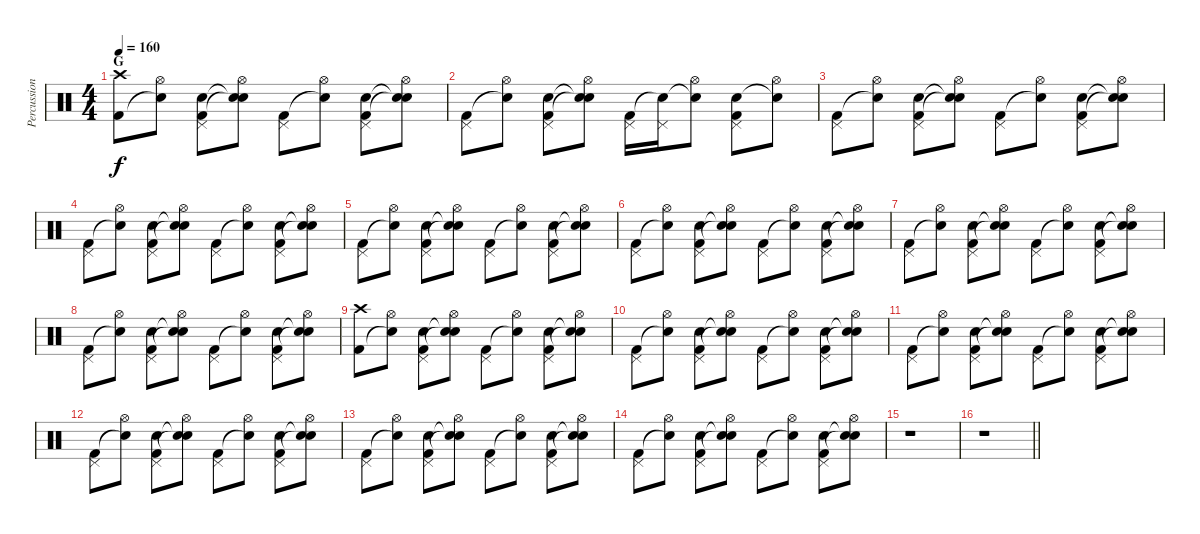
\track ("Percussion" "Percussion") {instrument percussion}
\staff {score}
\articulation defaults
\ts (4 4)
\section ("" "G")
\tempo 160
\clef neutral
\ks c
("Crash high (hit)" "Kick (hit) 2").8{dy f} ("Hi-Hat (open)" "Snare (hit)"{t}).8 ("Pedal Hi-Hat (hit)" "Electric Snare (hit)" "Kick (hit) 2").8 ("Hi-Hat (open)" "Snare (hit)"{t} "Snare (hit)"{t}).8 ("Pedal Hi-Hat (hit)" "Kick (hit) 2").8 ("Hi-Hat (open)" "Snare (hit)"{t}).8 ("Pedal Hi-Hat (hit)" "Electric Snare (hit)" "Kick (hit) 2").8 ("Hi-Hat (open)" "Snare (hit)"{t} "Snare (hit)"{t}).8 |
("Pedal Hi-Hat (hit)" "Kick (hit) 2").8 ("Hi-Hat (open)" "Snare (hit)"{t}).8 ("Pedal Hi-Hat (hit)" "Electric Snare (hit)" "Kick (hit) 2").8 ("Hi-Hat (open)" "Snare (hit)"{t} "Snare (hit)"{t}).8 ("Pedal Hi-Hat (hit)" "Kick (hit) 2").16 ("Pedal Hi-Hat (hit)" "Snare (hit)"{t}).16 ("Hi-Hat (open)" "Snare (hit)"{t}).8 ("Pedal Hi-Hat (hit)" "Electric Snare (hit)" "Kick (hit) 2").8 ("Hi-Hat (open)" "Snare (hit)"{t}).8 |
("Pedal Hi-Hat (hit)" "Kick (hit) 2").8 ("Hi-Hat (open)" "Snare (hit)"{t}).8 ("Pedal Hi-Hat (hit)" "Electric Snare (hit)" "Kick (hit) 2").8 ("Hi-Hat (open)" "Snare (hit)"{t} "Snare (hit)"{t}).8 ("Pedal Hi-Hat (hit)" "Kick (hit) 2").8 ("Hi-Hat (open)" "Snare (hit)"{t}).8 ("Pedal Hi-Hat (hit)" "Electric Snare (hit)" "Kick (hit) 2").8 ("Hi-Hat (open)" "Snare (hit)"{t} "Snare (hit)"{t}).8 |
("Pedal Hi-Hat (hit)" "Kick (hit) 2").8 ("Hi-Hat (open)" "Snare (hit)"{t}).8 ("Pedal Hi-Hat (hit)" "Electric Snare (hit)" "Kick (hit) 2").8 ("Hi-Hat (open)" "Snare (hit)"{t} "Snare (hit)"{t}).8 ("Pedal Hi-Hat (hit)" "Kick (hit) 2").8 ("Hi-Hat (open)" "Snare (hit)"{t}).8 ("Pedal Hi-Hat (hit)" "Electric Snare (hit)" "Kick (hit) 2").8 ("Hi-Hat (open)" "Snare (hit)"{t} "Snare (hit)"{t}).8 |
("Pedal Hi-Hat (hit)" "Kick (hit) 2").8 ("Hi-Hat (open)" "Snare (hit)"{t}).8 ("Pedal Hi-Hat (hit)" "Electric Snare (hit)" "Kick (hit) 2").8 ("Hi-Hat (open)" "Snare (hit)"{t} "Snare (hit)"{t}).8 ("Pedal Hi-Hat (hit)" "Kick (hit) 2").8 ("Hi-Hat (open)" "Snare (hit)"{t}).8 ("Pedal Hi-Hat (hit)" "Electric Snare (hit)" "Kick (hit) 2").8 ("Hi-Hat (open)" "Snare (hit)"{t} "Snare (hit)"{t}).8 |
("Pedal Hi-Hat (hit)" "Kick (hit) 2").8 ("Hi-Hat (open)" "Snare (hit)"{t}).8 ("Pedal Hi-Hat (hit)" "Electric Snare (hit)" "Kick (hit) 2").8 ("Hi-Hat (open)" "Snare (hit)"{t} "Snare (hit)"{t}).8 ("Pedal Hi-Hat (hit)" "Kick (hit) 2").8 ("Hi-Hat (open)" "Snare (hit)"{t}).8 ("Pedal Hi-Hat (hit)" "Electric Snare (hit)" "Kick (hit) 2").8 ("Hi-Hat (open)" "Snare (hit)"{t} "Snare (hit)"{t}).8 |
("Pedal Hi-Hat (hit)" "Kick (hit) 2").8 ("Hi-Hat (open)" "Snare (hit)"{t}).8 ("Pedal Hi-Hat (hit)" "Electric Snare (hit)" "Kick (hit) 2").8 ("Hi-Hat (open)" "Snare (hit)"{t} "Snare (hit)"{t}).8 ("Pedal Hi-Hat (hit)" "Kick (hit) 2").8 ("Hi-Hat (open)" "Snare (hit)"{t}).8 ("Pedal Hi-Hat (hit)" "Electric Snare (hit)" "Kick (hit) 2").8 ("Hi-Hat (open)" "Snare (hit)"{t} "Snare (hit)"{t}).8 |
("Pedal Hi-Hat (hit)" "Kick (hit) 2").8 ("Hi-Hat (open)" "Snare (hit)"{t}).8 ("Pedal Hi-Hat (hit)" "Electric Snare (hit)" "Kick (hit) 2").8 ("Hi-Hat (open)" "Snare (hit)"{t} "Snare (hit)"{t}).8 ("Pedal Hi-Hat (hit)" "Kick (hit) 2").8 ("Hi-Hat (open)" "Snare (hit)"{t}).8 ("Pedal Hi-Hat (hit)" "Electric Snare (hit)" "Kick (hit) 2").8 ("Hi-Hat (open)" "Snare (hit)"{t} "Snare (hit)"{t}).8 |
("Crash high (hit)" "Kick (hit) 2").8 ("Hi-Hat (open)" "Snare (hit)"{t}).8 ("Pedal Hi-Hat (hit)" "Electric Snare (hit)" "Kick (hit) 2").8 ("Hi-Hat (open)" "Snare (hit)"{t} "Snare (hit)"{t}).8 ("Pedal Hi-Hat (hit)" "Kick (hit) 2").8 ("Hi-Hat (open)" "Snare (hit)"{t}).8 ("Pedal Hi-Hat (hit)" "Electric Snare (hit)" "Kick (hit) 2").8 ("Hi-Hat (open)" "Snare (hit)"{t} "Snare (hit)"{t}).8 |
("Pedal Hi-Hat (hit)" "Kick (hit) 2").8 ("Hi-Hat (open)" "Snare (hit)"{t}).8 ("Pedal Hi-Hat (hit)" "Electric Snare (hit)" "Kick (hit) 2").8 ("Hi-Hat (open)" "Snare (hit)"{t} "Snare (hit)"{t}).8 ("Pedal Hi-Hat (hit)" "Kick (hit) 2").8 ("Hi-Hat (open)" "Snare (hit)"{t}).8 ("Pedal Hi-Hat (hit)" "Electric Snare (hit)" "Kick (hit) 2").8 ("Hi-Hat (open)" "Snare (hit)"{t} "Snare (hit)"{t}).8 |
("Pedal Hi-Hat (hit)" "Kick (hit) 2").8 ("Hi-Hat (open)" "Snare (hit)"{t}).8 ("Pedal Hi-Hat (hit)" "Electric Snare (hit)" "Kick (hit) 2").8 ("Hi-Hat (open)" "Snare (hit)"{t} "Snare (hit)"{t}).8 ("Pedal Hi-Hat (hit)" "Kick (hit) 2").8 ("Hi-Hat (open)" "Snare (hit)"{t}).8 ("Pedal Hi-Hat (hit)" "Electric Snare (hit)" "Kick (hit) 2").8 ("Hi-Hat (open)" "Snare (hit)"{t} "Snare (hit)"{t}).8 |
("Pedal Hi-Hat (hit)" "Kick (hit) 2").8 ("Hi-Hat (open)" "Snare (hit)"{t}).8 ("Pedal Hi-Hat (hit)" "Electric Snare (hit)" "Kick (hit) 2").8 ("Hi-Hat (open)" "Snare (hit)"{t} "Snare (hit)"{t}).8 ("Pedal Hi-Hat (hit)" "Kick (hit) 2").8 ("Hi-Hat (open)" "Snare (hit)"{t}).8 ("Pedal Hi-Hat (hit)" "Electric Snare (hit)" "Kick (hit) 2").8 ("Hi-Hat (open)" "Snare (hit)"{t} "Snare (hit)"{t}).8 |
("Pedal Hi-Hat (hit)" "Kick (hit) 2").8 ("Hi-Hat (open)" "Snare (hit)"{t}).8 ("Pedal Hi-Hat (hit)" "Electric Snare (hit)" "Kick (hit) 2").8 ("Hi-Hat (open)" "Snare (hit)"{t} "Snare (hit)"{t}).8 ("Pedal Hi-Hat (hit)" "Kick (hit) 2").8 ("Hi-Hat (open)" "Snare (hit)"{t}).8 ("Pedal Hi-Hat (hit)" "Electric Snare (hit)" "Kick (hit) 2").8 ("Hi-Hat (open)" "Snare (hit)"{t} "Snare (hit)"{t}).8 |
("Pedal Hi-Hat (hit)" "Kick (hit) 2").8 ("Hi-Hat (open)" "Snare (hit)"{t}).8 ("Pedal Hi-Hat (hit)" "Electric Snare (hit)" "Kick (hit) 2").8 ("Hi-Hat (open)" "Snare (hit)"{t} "Snare (hit)"{t}).8 ("Pedal Hi-Hat (hit)" "Kick (hit) 2").8 ("Hi-Hat (open)" "Snare (hit)"{t}).8 ("Pedal Hi-Hat (hit)" "Electric Snare (hit)" "Kick (hit) 2").8 ("Hi-Hat (open)" "Snare (hit)"{t} "Snare (hit)"{t}).8 |
r.1 |
\barLineRight lightlight
r.1
